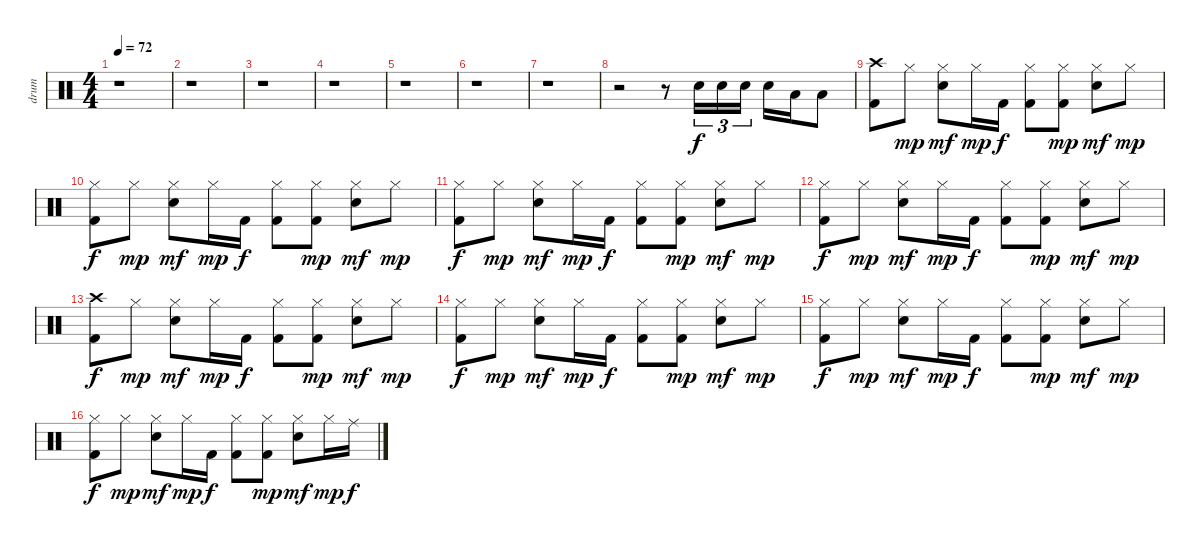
\track ("drum" "drum") {instrument percussion}
\staff {score}
\articulation defaults
\ts (4 4)
\tempo 72
\clef neutral
\ks c
r.1{dy f} |
r.1 |
r.1 |
r.1 |
r.1 |
r.1 |
r.1 |
r.2 r.8 "Electric Snare (hit)".16{tu (3 2)} "Electric Snare (hit)".16{tu (3 2)} "Electric Snare (hit)".16{tu (3 2)} "Electric Snare (hit)".16 "Low Tom (hit)".16 "Low Tom (hit)".8 |
("Crash high (hit)" "Kick (hit) 2").8 "Hi-Hat (closed)".8{dy mp} ("Hi-Hat (closed)" "Electric Snare (hit)").8{dy mf} "Hi-Hat (closed)".16{dy mp} "Kick (hit) 2".16{dy f} ("Hi-Hat (closed)" "Kick (hit) 2").8 ("Hi-Hat (closed)" "Kick (hit) 2").8{dy mp} ("Hi-Hat (closed)" "Electric Snare (hit)").8{dy mf} "Hi-Hat (closed)".8{dy mp} |
("Hi-Hat (closed)" "Kick (hit) 2").8{dy f} "Hi-Hat (closed)".8{dy mp} ("Hi-Hat (closed)" "Electric Snare (hit)").8{dy mf} "Hi-Hat (closed)".16{dy mp} "Kick (hit) 2".16{dy f} ("Hi-Hat (closed)" "Kick (hit) 2").8 ("Hi-Hat (closed)" "Kick (hit) 2").8{dy mp} ("Hi-Hat (closed)" "Electric Snare (hit)").8{dy mf} "Hi-Hat (closed)".8{dy mp} |
("Hi-Hat (closed)" "Kick (hit) 2").8{dy f} "Hi-Hat (closed)".8{dy mp} ("Hi-Hat (closed)" "Electric Snare (hit)").8{dy mf} "Hi-Hat (closed)".16{dy mp} "Kick (hit) 2".16{dy f} ("Hi-Hat (closed)" "Kick (hit) 2").8 ("Hi-Hat (closed)" "Kick (hit) 2").8{dy mp} ("Hi-Hat (closed)" "Electric Snare (hit)").8{dy mf} "Hi-Hat (closed)".8{dy mp} |
("Hi-Hat (closed)" "Kick (hit) 2").8{dy f} "Hi-Hat (closed)".8{dy mp} ("Hi-Hat (closed)" "Electric Snare (hit)").8{dy mf} "Hi-Hat (closed)".16{dy mp} "Kick (hit) 2".16{dy f} ("Hi-Hat (closed)" "Kick (hit) 2").8 ("Hi-Hat (closed)" "Kick (hit) 2").8{dy mp} ("Hi-Hat (closed)" "Electric Snare (hit)").8{dy mf} "Hi-Hat (closed)".8{dy mp} |
("Crash high (hit)" "Kick (hit) 2").8{dy f} "Hi-Hat (closed)".8{dy mp} ("Hi-Hat (closed)" "Electric Snare (hit)").8{dy mf} "Hi-Hat (closed)".16{dy mp} "Kick (hit) 2".16{dy f} ("Hi-Hat (closed)" "Kick (hit) 2").8 ("Hi-Hat (closed)" "Kick (hit) 2").8{dy mp} ("Hi-Hat (closed)" "Electric Snare (hit)").8{dy mf} "Hi-Hat (closed)".8{dy mp} |
("Hi-Hat (closed)" "Kick (hit) 2").8{dy f} "Hi-Hat (closed)".8{dy mp} ("Hi-Hat (closed)" "Electric Snare (hit)").8{dy mf} "Hi-Hat (closed)".16{dy mp} "Kick (hit) 2".16{dy f} ("Hi-Hat (closed)" "Kick (hit) 2").8 ("Hi-Hat (closed)" "Kick (hit) 2").8{dy mp} ("Hi-Hat (closed)" "Electric Snare (hit)").8{dy mf} "Hi-Hat (closed)".8{dy mp} |
("Hi-Hat (closed)" "Kick (hit) 2").8{dy f} "Hi-Hat (closed)".8{dy mp} ("Hi-Hat (closed)" "Electric Snare (hit)").8{dy mf} "Hi-Hat (closed)".16{dy mp} "Kick (hit) 2".16{dy f} ("Hi-Hat (closed)" "Kick (hit) 2").8 ("Hi-Hat (closed)" "Kick (hit) 2").8{dy mp} ("Hi-Hat (closed)" "Electric Snare (hit)").8{dy mf} "Hi-Hat (closed)".8{dy mp} |
("Hi-Hat (closed)" "Kick (hit) 2").8{dy f} "Hi-Hat (closed)".8{dy mp} ("Hi-Hat (closed)" "Electric Snare (hit)").8{dy mf} "Hi-Hat (closed)".16{dy mp} "Kick (hit) 2".16{dy f} ("Hi-Hat (closed)" "Kick (hit) 2").8 ("Hi-Hat (closed)" "Kick (hit) 2").8{dy mp} ("Hi-Hat (closed)" "Electric Snare (hit)").8{dy mf} "Hi-Hat (closed)".16{dy mp} "Ride (middle)".16{dy f}
